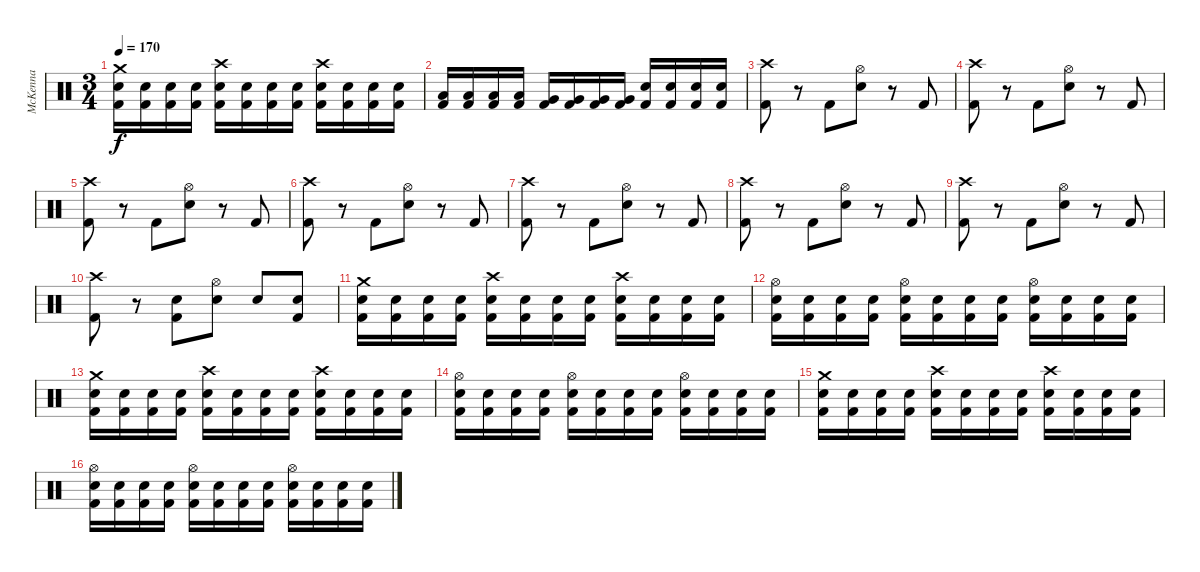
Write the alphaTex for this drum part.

\track ("McKenna" "McKenna") {instrument percussion}
\staff {score}
\articulation defaults
\ts (3 4)
\tempo 170
\clef neutral
\ks c
("Crash medium (hit)" "Electric Snare (hit)" "Kick (hit) 2").16{dy f} ("Electric Snare (hit)" "Kick (hit) 2").16 ("Electric Snare (hit)" "Kick (hit) 2").16 ("Electric Snare (hit)" "Kick (hit) 2").16 ("Crash high (hit)" "Electric Snare (hit)" "Kick (hit) 2").16 ("Electric Snare (hit)" "Kick (hit) 2").16 ("Electric Snare (hit)" "Kick (hit) 2").16 ("Electric Snare (hit)" "Kick (hit) 2").16 ("Crash high (hit)" "Electric Snare (hit)" "Kick (hit) 2").16 ("Electric Snare (hit)" "Kick (hit) 2").16 ("Electric Snare (hit)" "Kick (hit) 2").16 ("Electric Snare (hit)" "Kick (hit) 2").16 |
("Low Floor Tom (hit)" "Kick (hit) 2").16 ("Low Floor Tom (hit)" "Kick (hit) 2").16 ("Low Floor Tom (hit)" "Kick (hit) 2").16 ("Low Floor Tom (hit)" "Kick (hit) 2").16 ("Very Low Tom (hit)" "Kick (hit) 2").16 ("Very Low Tom (hit)" "Kick (hit) 2").16 ("Very Low Tom (hit)" "Kick (hit) 2").16 ("Very Low Tom (hit)" "Kick (hit) 2").16 ("Snare (hit) 2" "Kick (hit) 2").16 ("Snare (hit) 2" "Kick (hit) 2").16 ("Snare (hit) 2" "Kick (hit) 2").16 ("Snare (hit) 2" "Kick (hit) 2").16 |
("Crash high (hit)" "Kick (hit) 2").8 r.8 "Kick (hit) 2".8 ("Hi-Hat (open)" "Snare (hit) 2").8 r.8 "Kick (hit) 2".8 |
("Crash high (hit)" "Kick (hit) 2").8 r.8 "Kick (hit) 2".8 ("Hi-Hat (open)" "Snare (hit) 2").8 r.8 "Kick (hit) 2".8 |
("Crash high (hit)" "Kick (hit) 2").8 r.8 "Kick (hit) 2".8 ("Hi-Hat (open)" "Snare (hit) 2").8 r.8 "Kick (hit) 2".8 |
("Crash high (hit)" "Kick (hit) 2").8 r.8 "Kick (hit) 2".8 ("Hi-Hat (open)" "Snare (hit) 2").8 r.8 "Kick (hit) 2".8 |
("Crash high (hit)" "Kick (hit) 2").8 r.8 "Kick (hit) 2".8 ("Hi-Hat (open)" "Snare (hit) 2").8 r.8 "Kick (hit) 2".8 |
("Crash high (hit)" "Kick (hit) 2").8 r.8 "Kick (hit) 2".8 ("Hi-Hat (open)" "Snare (hit) 2").8 r.8 "Kick (hit) 2".8 |
("Crash high (hit)" "Kick (hit) 2").8 r.8 "Kick (hit) 2".8 ("Hi-Hat (open)" "Snare (hit) 2").8 r.8 "Kick (hit) 2".8 |
("Crash high (hit)" "Kick (hit) 2").8 r.8 ("Snare (hit) 2" "Kick (hit) 2").8 ("Hi-Hat (open)" "Snare (hit) 2").8 "Snare (hit) 2".8 ("Snare (hit) 2" "Kick (hit) 2").8 |
("Crash medium (hit)" "Electric Snare (hit)" "Kick (hit) 2").16 ("Electric Snare (hit)" "Kick (hit) 2").16 ("Electric Snare (hit)" "Kick (hit) 2").16 ("Electric Snare (hit)" "Kick (hit) 2").16 ("Crash high (hit)" "Electric Snare (hit)" "Kick (hit) 2").16 ("Electric Snare (hit)" "Kick (hit) 2").16 ("Electric Snare (hit)" "Kick (hit) 2").16 ("Electric Snare (hit)" "Kick (hit) 2").16 ("Crash high (hit)" "Electric Snare (hit)" "Kick (hit) 2").16 ("Electric Snare (hit)" "Kick (hit) 2").16 ("Electric Snare (hit)" "Kick (hit) 2").16 ("Electric Snare (hit)" "Kick (hit) 2").16 |
("Hi-Hat (open)" "Electric Snare (hit)" "Kick (hit) 2").16 ("Electric Snare (hit)" "Kick (hit) 2").16 ("Electric Snare (hit)" "Kick (hit) 2").16 ("Electric Snare (hit)" "Kick (hit) 2").16 ("Hi-Hat (open)" "Electric Snare (hit)" "Kick (hit) 2").16 ("Electric Snare (hit)" "Kick (hit) 2").16 ("Electric Snare (hit)" "Kick (hit) 2").16 ("Electric Snare (hit)" "Kick (hit) 2").16 ("Hi-Hat (open)" "Electric Snare (hit)" "Kick (hit) 2").16 ("Electric Snare (hit)" "Kick (hit) 2").16 ("Electric Snare (hit)" "Kick (hit) 2").16 ("Electric Snare (hit)" "Kick (hit) 2").16 |
("Crash medium (hit)" "Electric Snare (hit)" "Kick (hit) 2").16 ("Electric Snare (hit)" "Kick (hit) 2").16 ("Electric Snare (hit)" "Kick (hit) 2").16 ("Electric Snare (hit)" "Kick (hit) 2").16 ("Crash high (hit)" "Electric Snare (hit)" "Kick (hit) 2").16 ("Electric Snare (hit)" "Kick (hit) 2").16 ("Electric Snare (hit)" "Kick (hit) 2").16 ("Electric Snare (hit)" "Kick (hit) 2").16 ("Crash high (hit)" "Electric Snare (hit)" "Kick (hit) 2").16 ("Electric Snare (hit)" "Kick (hit) 2").16 ("Electric Snare (hit)" "Kick (hit) 2").16 ("Electric Snare (hit)" "Kick (hit) 2").16 |
("Hi-Hat (open)" "Electric Snare (hit)" "Kick (hit) 2").16 ("Electric Snare (hit)" "Kick (hit) 2").16 ("Electric Snare (hit)" "Kick (hit) 2").16 ("Electric Snare (hit)" "Kick (hit) 2").16 ("Hi-Hat (open)" "Electric Snare (hit)" "Kick (hit) 2").16 ("Electric Snare (hit)" "Kick (hit) 2").16 ("Electric Snare (hit)" "Kick (hit) 2").16 ("Electric Snare (hit)" "Kick (hit) 2").16 ("Hi-Hat (open)" "Electric Snare (hit)" "Kick (hit) 2").16 ("Electric Snare (hit)" "Kick (hit) 2").16 ("Electric Snare (hit)" "Kick (hit) 2").16 ("Electric Snare (hit)" "Kick (hit) 2").16 |
("Crash medium (hit)" "Electric Snare (hit)" "Kick (hit) 2").16 ("Electric Snare (hit)" "Kick (hit) 2").16 ("Electric Snare (hit)" "Kick (hit) 2").16 ("Electric Snare (hit)" "Kick (hit) 2").16 ("Crash high (hit)" "Electric Snare (hit)" "Kick (hit) 2").16 ("Electric Snare (hit)" "Kick (hit) 2").16 ("Electric Snare (hit)" "Kick (hit) 2").16 ("Electric Snare (hit)" "Kick (hit) 2").16 ("Crash high (hit)" "Electric Snare (hit)" "Kick (hit) 2").16 ("Electric Snare (hit)" "Kick (hit) 2").16 ("Electric Snare (hit)" "Kick (hit) 2").16 ("Electric Snare (hit)" "Kick (hit) 2").16 |
("Hi-Hat (open)" "Electric Snare (hit)" "Kick (hit) 2").16 ("Electric Snare (hit)" "Kick (hit) 2").16 ("Electric Snare (hit)" "Kick (hit) 2").16 ("Electric Snare (hit)" "Kick (hit) 2").16 ("Hi-Hat (open)" "Electric Snare (hit)" "Kick (hit) 2").16 ("Electric Snare (hit)" "Kick (hit) 2").16 ("Electric Snare (hit)" "Kick (hit) 2").16 ("Electric Snare (hit)" "Kick (hit) 2").16 ("Hi-Hat (open)" "Electric Snare (hit)" "Kick (hit) 2").16 ("Electric Snare (hit)" "Kick (hit) 2").16 ("Electric Snare (hit)" "Kick (hit) 2").16 ("Electric Snare (hit)" "Kick (hit) 2").16
